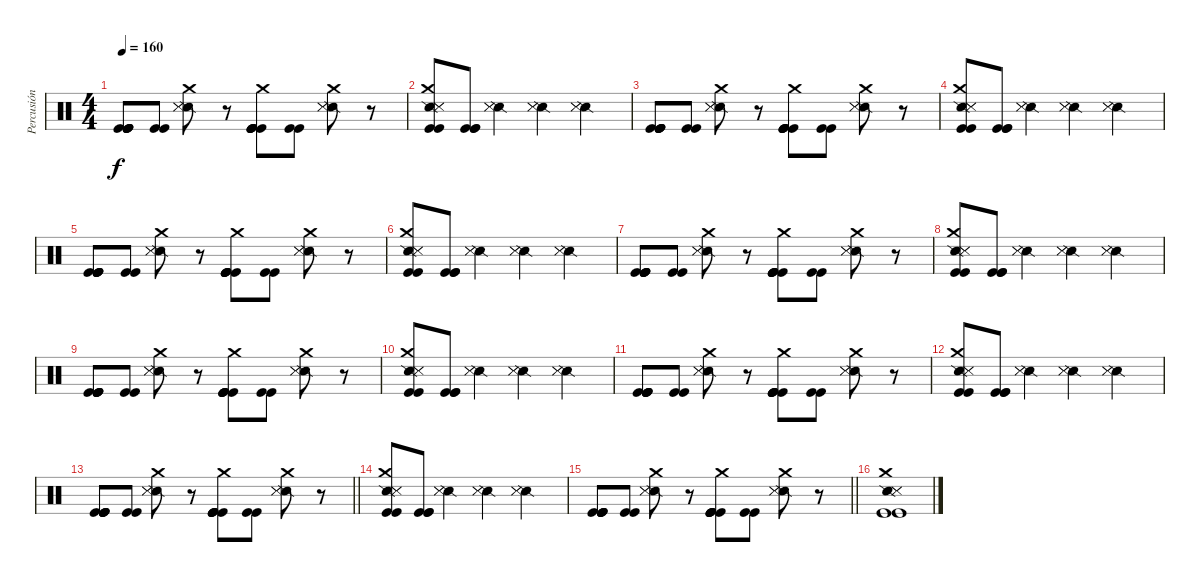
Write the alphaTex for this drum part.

\track ("Percusión" "Percusión") {instrument percussion}
\staff {score}
\articulation defaults
\ts (4 4)
\tempo 160
\clef neutral
\ks c
("Kick (hit)" "Kick (hit)" "Kick (hit)" "Kick (hit)" "Kick (hit)").8{dy f} ("Kick (hit)" "Kick (hit)").8 ("Crash medium (hit)" "Snare (side stick) 2" "Metronome (hit)" "Metronome (hit)").8 r.8 ("Crash medium (hit)" "Kick (hit)" "Kick (hit)" "Kick (hit)" "Kick (hit)" "Kick (hit)").8 ("Kick (hit)" "Kick (hit)").8 ("Crash medium (hit)" "Snare (side stick) 2" "Metronome (hit)" "Metronome (hit)").8 r.8 |
("Kick (hit)" "Kick (hit)" "Snare (side stick) 2" "Metronome (hit)" "Metronome (hit)" "Crash medium (hit)").8 ("Kick (hit)" "Kick (hit)" "Kick (hit)").8 ("Snare (side stick) 2" "Metronome (hit)" "Metronome (hit)").4 ("Snare (side stick) 2" "Metronome (hit)" "Metronome (hit)").4 ("Snare (side stick) 2" "Metronome (hit)" "Metronome (hit)").4 |
("Kick (hit)" "Kick (hit)" "Kick (hit)" "Kick (hit)" "Kick (hit)").8 ("Kick (hit)" "Kick (hit)").8 ("Crash medium (hit)" "Snare (side stick) 2" "Metronome (hit)" "Metronome (hit)").8 r.8 ("Crash medium (hit)" "Kick (hit)" "Kick (hit)" "Kick (hit)" "Kick (hit)" "Kick (hit)").8 ("Kick (hit)" "Kick (hit)").8 ("Crash medium (hit)" "Snare (side stick) 2" "Metronome (hit)" "Metronome (hit)").8 r.8 |
("Kick (hit)" "Kick (hit)" "Snare (side stick) 2" "Metronome (hit)" "Metronome (hit)" "Crash medium (hit)").8 ("Kick (hit)" "Kick (hit)" "Kick (hit)").8 ("Snare (side stick) 2" "Metronome (hit)" "Metronome (hit)").4 ("Snare (side stick) 2" "Metronome (hit)" "Metronome (hit)").4 ("Snare (side stick) 2" "Metronome (hit)" "Metronome (hit)").4 |
("Kick (hit)" "Kick (hit)" "Kick (hit)" "Kick (hit)" "Kick (hit)").8 ("Kick (hit)" "Kick (hit)").8 ("Crash medium (hit)" "Snare (side stick) 2" "Metronome (hit)" "Metronome (hit)").8 r.8 ("Crash medium (hit)" "Kick (hit)" "Kick (hit)" "Kick (hit)" "Kick (hit)" "Kick (hit)").8 ("Kick (hit)" "Kick (hit)").8 ("Crash medium (hit)" "Snare (side stick) 2" "Metronome (hit)" "Metronome (hit)").8 r.8 |
("Kick (hit)" "Kick (hit)" "Snare (side stick) 2" "Metronome (hit)" "Metronome (hit)" "Crash medium (hit)").8 ("Kick (hit)" "Kick (hit)" "Kick (hit)").8 ("Snare (side stick) 2" "Metronome (hit)" "Metronome (hit)").4 ("Snare (side stick) 2" "Metronome (hit)" "Metronome (hit)").4 ("Snare (side stick) 2" "Metronome (hit)" "Metronome (hit)").4 |
("Kick (hit)" "Kick (hit)" "Kick (hit)" "Kick (hit)" "Kick (hit)").8 ("Kick (hit)" "Kick (hit)").8 ("Crash medium (hit)" "Snare (side stick) 2" "Metronome (hit)" "Metronome (hit)").8 r.8 ("Crash medium (hit)" "Kick (hit)" "Kick (hit)" "Kick (hit)" "Kick (hit)" "Kick (hit)").8 ("Kick (hit)" "Kick (hit)").8 ("Crash medium (hit)" "Snare (side stick) 2" "Metronome (hit)" "Metronome (hit)").8 r.8 |
("Kick (hit)" "Kick (hit)" "Snare (side stick) 2" "Metronome (hit)" "Metronome (hit)" "Crash medium (hit)").8 ("Kick (hit)" "Kick (hit)" "Kick (hit)").8 ("Snare (side stick) 2" "Metronome (hit)" "Metronome (hit)").4 ("Snare (side stick) 2" "Metronome (hit)" "Metronome (hit)").4 ("Snare (side stick) 2" "Metronome (hit)" "Metronome (hit)").4 |
("Kick (hit)" "Kick (hit)" "Kick (hit)" "Kick (hit)" "Kick (hit)").8 ("Kick (hit)" "Kick (hit)").8 ("Crash medium (hit)" "Snare (side stick) 2" "Metronome (hit)" "Metronome (hit)").8 r.8 ("Crash medium (hit)" "Kick (hit)" "Kick (hit)" "Kick (hit)" "Kick (hit)" "Kick (hit)").8 ("Kick (hit)" "Kick (hit)").8 ("Crash medium (hit)" "Snare (side stick) 2" "Metronome (hit)" "Metronome (hit)").8 r.8 |
("Kick (hit)" "Kick (hit)" "Snare (side stick) 2" "Metronome (hit)" "Metronome (hit)" "Crash medium (hit)").8 ("Kick (hit)" "Kick (hit)" "Kick (hit)").8 ("Snare (side stick) 2" "Metronome (hit)" "Metronome (hit)").4 ("Snare (side stick) 2" "Metronome (hit)" "Metronome (hit)").4 ("Snare (side stick) 2" "Metronome (hit)" "Metronome (hit)").4 |
("Kick (hit)" "Kick (hit)" "Kick (hit)" "Kick (hit)" "Kick (hit)").8 ("Kick (hit)" "Kick (hit)").8 ("Crash medium (hit)" "Snare (side stick) 2" "Metronome (hit)" "Metronome (hit)").8 r.8 ("Crash medium (hit)" "Kick (hit)" "Kick (hit)" "Kick (hit)" "Kick (hit)" "Kick (hit)").8 ("Kick (hit)" "Kick (hit)").8 ("Crash medium (hit)" "Snare (side stick) 2" "Metronome (hit)" "Metronome (hit)").8 r.8 |
("Kick (hit)" "Kick (hit)" "Snare (side stick) 2" "Metronome (hit)" "Metronome (hit)" "Crash medium (hit)").8 ("Kick (hit)" "Kick (hit)" "Kick (hit)").8 ("Snare (side stick) 2" "Metronome (hit)" "Metronome (hit)").4 ("Snare (side stick) 2" "Metronome (hit)" "Metronome (hit)").4 ("Snare (side stick) 2" "Metronome (hit)" "Metronome (hit)").4 |
\barLineRight lightlight
("Kick (hit)" "Kick (hit)" "Kick (hit)" "Kick (hit)" "Kick (hit)").8 ("Kick (hit)" "Kick (hit)").8 ("Crash medium (hit)" "Snare (side stick) 2" "Metronome (hit)" "Metronome (hit)").8 r.8 ("Crash medium (hit)" "Kick (hit)" "Kick (hit)" "Kick (hit)" "Kick (hit)" "Kick (hit)").8 ("Kick (hit)" "Kick (hit)").8 ("Crash medium (hit)" "Snare (side stick) 2" "Metronome (hit)" "Metronome (hit)").8 r.8 |
("Kick (hit)" "Kick (hit)" "Snare (side stick) 2" "Metronome (hit)" "Metronome (hit)" "Crash medium (hit)").8 ("Kick (hit)" "Kick (hit)" "Kick (hit)").8 ("Snare (side stick) 2" "Metronome (hit)" "Metronome (hit)").4 ("Snare (side stick) 2" "Metronome (hit)" "Metronome (hit)").4 ("Snare (side stick) 2" "Metronome (hit)" "Metronome (hit)").4 |
\barLineRight lightlight
("Kick (hit)" "Kick (hit)" "Kick (hit)" "Kick (hit)" "Kick (hit)").8 ("Kick (hit)" "Kick (hit)").8 ("Crash medium (hit)" "Snare (side stick) 2" "Metronome (hit)" "Metronome (hit)").8 r.8 ("Crash medium (hit)" "Kick (hit)" "Kick (hit)" "Kick (hit)" "Kick (hit)" "Kick (hit)").8 ("Kick (hit)" "Kick (hit)").8 ("Crash medium (hit)" "Snare (side stick) 2" "Metronome (hit)" "Metronome (hit)").8 r.8 |
("Kick (hit)" "Kick (hit)" "Snare (side stick) 2" "Metronome (hit)" "Metronome (hit)" "Crash medium (hit)").1
